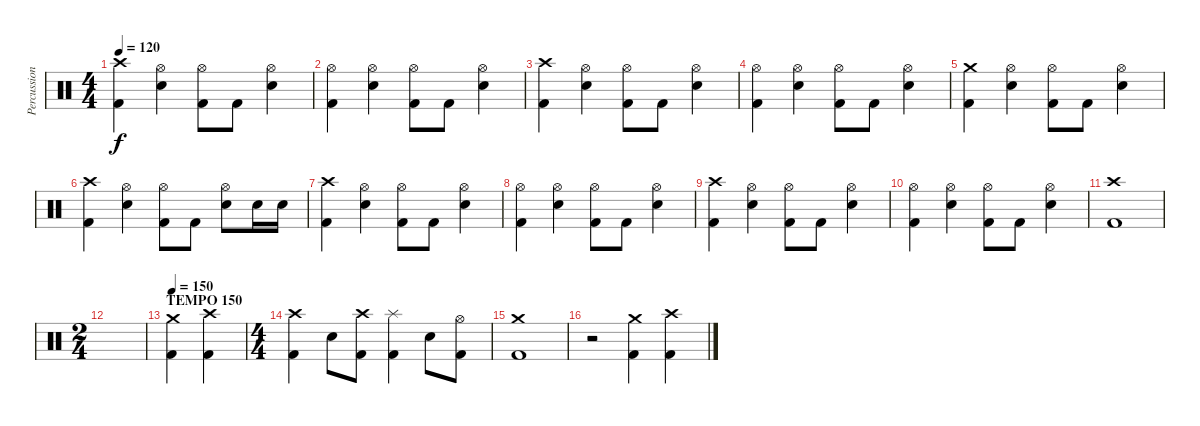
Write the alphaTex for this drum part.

\track ("Percussion" "Percussion") {instrument percussion}
\staff {score}
\articulation defaults
\ts (4 4)
\tempo 120
\clef neutral
\ks c
("Kick (hit) 2" "Crash high (hit)").4{dy f} ("Snare (hit) 2" "Hi-Hat (open)").4 ("Kick (hit) 2" "Hi-Hat (open)").8 "Kick (hit) 2".8 ("Snare (hit) 2" "Hi-Hat (open)").4 |
("Kick (hit) 2" "Hi-Hat (open)").4 ("Snare (hit) 2" "Hi-Hat (open)").4 ("Kick (hit) 2" "Hi-Hat (open)").8 "Kick (hit) 2".8 ("Snare (hit) 2" "Hi-Hat (open)").4 |
("Kick (hit) 2" "Crash high (hit)").4 ("Snare (hit) 2" "Hi-Hat (open)").4 ("Kick (hit) 2" "Hi-Hat (open)").8 "Kick (hit) 2".8 ("Snare (hit) 2" "Hi-Hat (open)").4 |
("Kick (hit) 2" "Hi-Hat (open)").4 ("Snare (hit) 2" "Hi-Hat (open)").4 ("Kick (hit) 2" "Hi-Hat (open)").8 "Kick (hit) 2".8 ("Snare (hit) 2" "Hi-Hat (open)").4 |
("Kick (hit) 2" "Crash medium (hit)").4 ("Snare (hit) 2" "Hi-Hat (open)").4 ("Kick (hit) 2" "Hi-Hat (open)").8 "Kick (hit) 2".8 ("Snare (hit) 2" "Hi-Hat (open)").4 |
("Kick (hit) 2" "Crash high (hit)").4 ("Snare (hit) 2" "Hi-Hat (open)").4 ("Kick (hit) 2" "Hi-Hat (open)").8 "Kick (hit) 2".8 ("Snare (hit) 2" "Hi-Hat (open)").8 "Snare (hit) 2".16 "Snare (hit) 2".16 |
("Kick (hit) 2" "Crash high (hit)").4 ("Snare (hit) 2" "Hi-Hat (open)").4 ("Kick (hit) 2" "Hi-Hat (open)").8 "Kick (hit) 2".8 ("Snare (hit) 2" "Hi-Hat (open)").4 |
("Kick (hit) 2" "Hi-Hat (open)").4 ("Snare (hit) 2" "Hi-Hat (open)").4 ("Kick (hit) 2" "Hi-Hat (open)").8 "Kick (hit) 2".8 ("Snare (hit) 2" "Hi-Hat (open)").4 |
("Kick (hit) 2" "Crash high (hit)").4 ("Snare (hit) 2" "Hi-Hat (open)").4 ("Kick (hit) 2" "Hi-Hat (open)").8 "Kick (hit) 2".8 ("Snare (hit) 2" "Hi-Hat (open)").4 |
("Kick (hit) 2" "Hi-Hat (open)").4 ("Snare (hit) 2" "Hi-Hat (open)").4 ("Kick (hit) 2" "Hi-Hat (open)").8 "Kick (hit) 2".8 ("Snare (hit) 2" "Hi-Hat (open)").4 |
("Kick (hit) 2" "Crash high (hit)").1 |
\ts (2 4)
|
\section ("" "TEMPO 150")
\tempo 150
("Kick (hit) 2" "Crash medium (hit)").4 ("Kick (hit) 2" "Crash high (hit)").4 |
\ts (4 4)
("Kick (hit) 2" "Crash high (hit)").4 "Snare (hit) 2".8 ("Kick (hit) 2" "Crash high (hit)").8 ("Kick (hit) 2" "Splash (hit)").4 "Snare (hit) 2".8 ("Kick (hit) 2" "Hi-Hat (open)").8 |
("Kick (hit) 2" "Crash medium (hit)").1 |
r.2 ("Kick (hit) 2" "Crash medium (hit)").4 ("Kick (hit) 2" "Crash high (hit)").4
